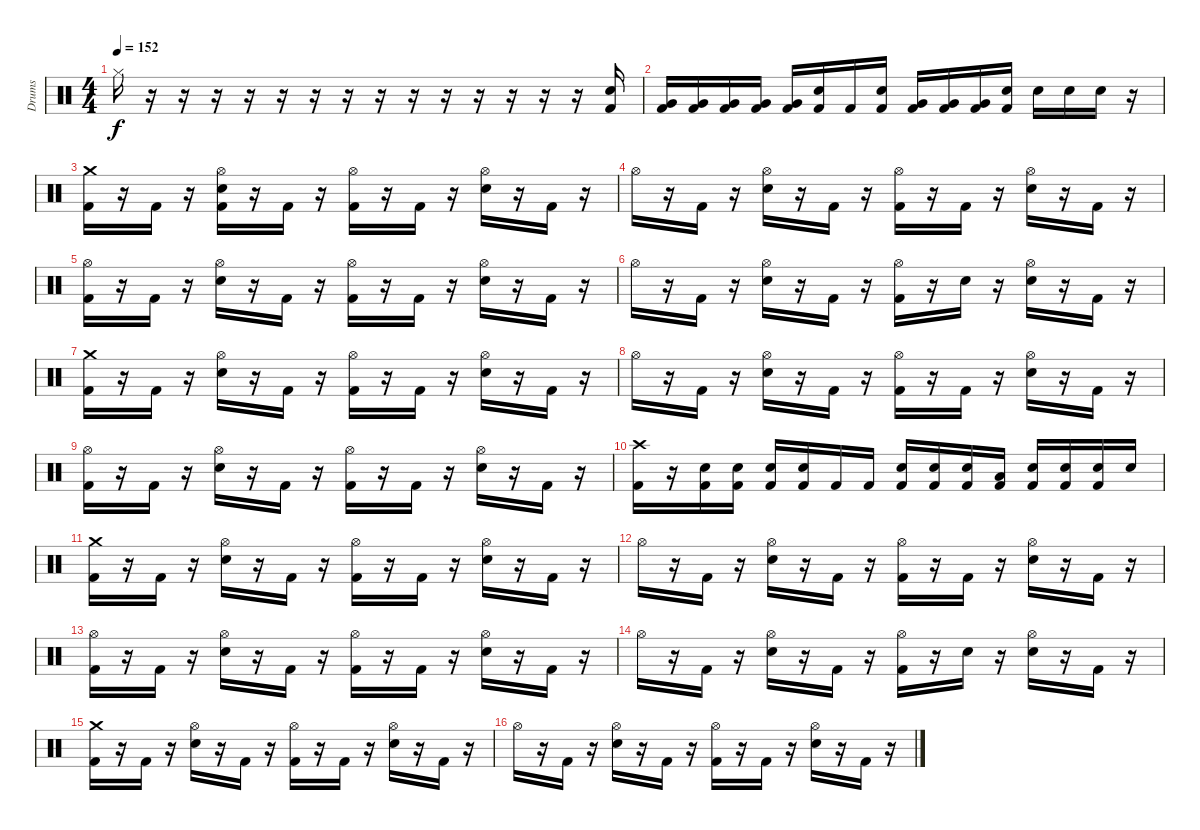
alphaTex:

\track ("Drums" "Drums") {instrument percussion}
\staff {score}
\articulation defaults
\ts (4 4)
\tempo 152
\clef neutral
\ks c "Hi-Hat (closed)".16{dy f}
r.16 r.16 r.16 r.16 r.16 r.16 r.16 r.16 r.16 r.16 r.16 r.16 r.16 r.16 ("Snare (hit) 2" "Kick (hit) 2").16 |
("Very Low Tom (hit)" "Kick (hit) 2").16 ("Very Low Tom (hit)" "Kick (hit) 2").16 ("Very Low Tom (hit)" "Kick (hit) 2").16 ("Very Low Tom (hit)" "Kick (hit) 2").16 ("Very Low Tom (hit)" "Kick (hit) 2").16 ("Snare (hit) 2" "Kick (hit) 2").16 "Kick (hit) 2".16 ("Snare (hit) 2" "Kick (hit) 2").16 ("Very Low Tom (hit)" "Kick (hit) 2").16 ("Very Low Tom (hit)" "Kick (hit) 2").16 ("Very Low Tom (hit)" "Kick (hit) 2").16 ("Snare (hit) 2" "Kick (hit) 2").16 "Snare (hit) 2".16 "Snare (hit) 2".16 "Snare (hit) 2".16 r.16 |
("Crash medium (hit)" "Kick (hit) 2").16 r.16 "Kick (hit) 2".16 r.16 ("Hi-Hat (open)" "Snare (hit) 2" "Kick (hit) 2").16 r.16 "Kick (hit) 2".16 r.16 ("Hi-Hat (open)" "Kick (hit) 2").16 r.16 "Kick (hit) 2".16 r.16 ("Hi-Hat (open)" "Snare (hit) 2").16 r.16 "Kick (hit) 2".16 r.16 |
"Hi-Hat (open)".16 r.16 "Kick (hit) 2".16 r.16 ("Hi-Hat (open)" "Snare (hit) 2").16 r.16 "Kick (hit) 2".16 r.16 ("Hi-Hat (open)" "Kick (hit) 2").16 r.16 "Kick (hit) 2".16 r.16 ("Hi-Hat (open)" "Snare (hit) 2").16 r.16 "Kick (hit) 2".16 r.16 |
("Hi-Hat (open)" "Kick (hit) 2").16 r.16 "Kick (hit) 2".16 r.16 ("Hi-Hat (open)" "Snare (hit) 2").16 r.16 "Kick (hit) 2".16 r.16 ("Hi-Hat (open)" "Kick (hit) 2").16 r.16 "Kick (hit) 2".16 r.16 ("Hi-Hat (open)" "Snare (hit) 2").16 r.16 "Kick (hit) 2".16 r.16 |
"Hi-Hat (open)".16 r.16 "Kick (hit) 2".16 r.16 ("Hi-Hat (open)" "Snare (hit) 2").16 r.16 "Kick (hit) 2".16 r.16 ("Hi-Hat (open)" "Kick (hit) 2").16 r.16 "Snare (hit) 2".16 r.16 ("Hi-Hat (open)" "Snare (hit) 2").16 r.16 "Kick (hit) 2".16 r.16 |
("Crash medium (hit)" "Kick (hit) 2").16 r.16 "Kick (hit) 2".16 r.16 ("Hi-Hat (open)" "Snare (hit) 2").16 r.16 "Kick (hit) 2".16 r.16 ("Hi-Hat (open)" "Kick (hit) 2").16 r.16 "Kick (hit) 2".16 r.16 ("Hi-Hat (open)" "Snare (hit) 2").16 r.16 "Kick (hit) 2".16 r.16 |
"Hi-Hat (open)".16 r.16 "Kick (hit) 2".16 r.16 ("Hi-Hat (open)" "Snare (hit) 2").16 r.16 "Kick (hit) 2".16 r.16 ("Hi-Hat (open)" "Kick (hit) 2").16 r.16 "Kick (hit) 2".16 r.16 ("Hi-Hat (open)" "Snare (hit) 2").16 r.16 "Kick (hit) 2".16 r.16 |
("Hi-Hat (open)" "Kick (hit) 2").16 r.16 "Kick (hit) 2".16 r.16 ("Hi-Hat (open)" "Snare (hit) 2").16 r.16 "Kick (hit) 2".16 r.16 ("Hi-Hat (open)" "Kick (hit) 2").16 r.16 "Kick (hit) 2".16 r.16 ("Hi-Hat (open)" "Snare (hit) 2").16 r.16 "Kick (hit) 2".16 r.16 |
("Crash high (hit)" "Kick (hit) 2").16 r.16 ("Snare (hit) 2" "Kick (hit) 2").16 ("Snare (hit) 2" "Kick (hit) 2").16 ("Snare (hit) 2" "Kick (hit) 2").16 ("Snare (hit) 2" "Kick (hit) 2").16 "Kick (hit) 2".16 "Kick (hit) 2".16 ("Snare (hit) 2" "Kick (hit) 2").16 ("Snare (hit) 2" "Kick (hit) 2").16 ("Snare (hit) 2" "Kick (hit) 2").16 ("Low Tom (hit)" "Kick (hit) 2").16 ("Snare (hit) 2" "Kick (hit) 2").16 ("Snare (hit) 2" "Kick (hit) 2").16 ("Snare (hit) 2" "Kick (hit) 2").16 "Snare (hit) 2".16 |
("Crash medium (hit)" "Kick (hit) 2").16 r.16 "Kick (hit) 2".16 r.16 ("Hi-Hat (open)" "Snare (hit) 2").16 r.16 "Kick (hit) 2".16 r.16 ("Hi-Hat (open)" "Kick (hit) 2").16 r.16 "Kick (hit) 2".16 r.16 ("Hi-Hat (open)" "Snare (hit) 2").16 r.16 "Kick (hit) 2".16 r.16 |
"Hi-Hat (open)".16 r.16 "Kick (hit) 2".16 r.16 ("Hi-Hat (open)" "Snare (hit) 2").16 r.16 "Kick (hit) 2".16 r.16 ("Hi-Hat (open)" "Kick (hit) 2").16 r.16 "Kick (hit) 2".16 r.16 ("Hi-Hat (open)" "Snare (hit) 2").16 r.16 "Kick (hit) 2".16 r.16 |
("Hi-Hat (open)" "Kick (hit) 2").16 r.16 "Kick (hit) 2".16 r.16 ("Hi-Hat (open)" "Snare (hit) 2").16 r.16 "Kick (hit) 2".16 r.16 ("Hi-Hat (open)" "Kick (hit) 2").16 r.16 "Kick (hit) 2".16 r.16 ("Hi-Hat (open)" "Snare (hit) 2").16 r.16 "Kick (hit) 2".16 r.16 |
"Hi-Hat (open)".16 r.16 "Kick (hit) 2".16 r.16 ("Hi-Hat (open)" "Snare (hit) 2").16 r.16 "Kick (hit) 2".16 r.16 ("Hi-Hat (open)" "Kick (hit) 2").16 r.16 "Snare (hit) 2".16 r.16 ("Hi-Hat (open)" "Snare (hit) 2").16 r.16 "Kick (hit) 2".16 r.16 |
("Crash medium (hit)" "Kick (hit) 2").16 r.16 "Kick (hit) 2".16 r.16 ("Hi-Hat (open)" "Snare (hit) 2").16 r.16 "Kick (hit) 2".16 r.16 ("Hi-Hat (open)" "Kick (hit) 2").16 r.16 "Kick (hit) 2".16 r.16 ("Hi-Hat (open)" "Snare (hit) 2").16 r.16 "Kick (hit) 2".16 r.16 |
"Hi-Hat (open)".16 r.16 "Kick (hit) 2".16 r.16 ("Hi-Hat (open)" "Snare (hit) 2").16 r.16 "Kick (hit) 2".16 r.16 ("Hi-Hat (open)" "Kick (hit) 2").16 r.16 "Kick (hit) 2".16 r.16 ("Hi-Hat (open)" "Snare (hit) 2").16 r.16 "Kick (hit) 2".16 r.16
